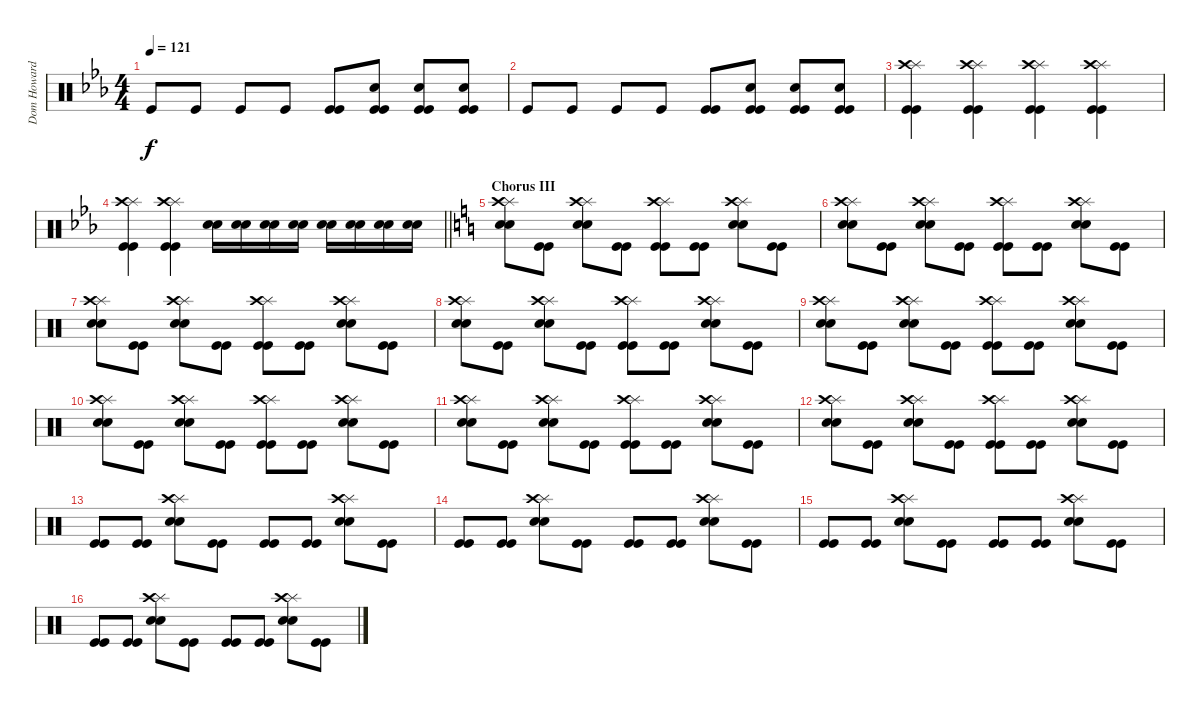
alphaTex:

\track ("Dom Howard - Drums" "Dom Howard") {instrument percussion}
\staff {score}
\articulation defaults
\ts (4 4)
\tempo 121
\clef neutral
\ks eb "Kick (hit)".8{dy f} "Kick (hit)".8 "Kick (hit)".8 "Kick (hit)".8
("Kick (hit)" "Kick (hit)").8 ("Electric Snare (hit)" "Kick (hit)" "Kick (hit)").8 ("Electric Snare (hit)" "Kick (hit)" "Kick (hit)").8 ("Electric Snare (hit)" "Kick (hit)" "Kick (hit)").8 |
"Kick (hit)".8 "Kick (hit)".8 "Kick (hit)".8 "Kick (hit)".8 ("Kick (hit)" "Kick (hit)").8 ("Electric Snare (hit)" "Kick (hit)" "Kick (hit)").8 ("Electric Snare (hit)" "Kick (hit)" "Kick (hit)").8 ("Electric Snare (hit)" "Kick (hit)" "Kick (hit)").8 |
("Splash (hit)" "Crash high (hit)" "Kick (hit)" "Kick (hit)").4 ("Splash (hit)" "Crash high (hit)" "Kick (hit)" "Kick (hit)").4 ("Splash (hit)" "Crash high (hit)" "Kick (hit)" "Kick (hit)").4 ("Splash (hit)" "Crash high (hit)" "Kick (hit)" "Kick (hit)").4 |
\barLineRight lightlight
("Splash (hit)" "Crash high (hit)" "Kick (hit)" "Kick (hit)").4 ("Splash (hit)" "Crash high (hit)" "Kick (hit)" "Kick (hit)").4 ("Electric Snare (hit)" "Electric Snare (hit)").16 ("Electric Snare (hit)" "Electric Snare (hit)").16 ("Electric Snare (hit)" "Electric Snare (hit)").16 ("Electric Snare (hit)" "Electric Snare (hit)").16 ("Electric Snare (hit)" "Electric Snare (hit)").16 ("Electric Snare (hit)" "Electric Snare (hit)").16 ("Electric Snare (hit)" "Electric Snare (hit)").16 ("Electric Snare (hit)" "Electric Snare (hit)").16 |
\section ("" "Chorus III")
\ks c
("Splash (hit)" "Crash high (hit)" "Electric Snare (hit)" "Electric Snare (hit)").8 ("Kick (hit)" "Kick (hit)").8 ("Splash (hit)" "Crash high (hit)" "Electric Snare (hit)" "Electric Snare (hit)").8 ("Kick (hit)" "Kick (hit)").8 ("Splash (hit)" "Crash high (hit)" "Kick (hit)" "Kick (hit)").8 ("Kick (hit)" "Kick (hit)").8 ("Splash (hit)" "Crash high (hit)" "Electric Snare (hit)" "Electric Snare (hit)").8 ("Kick (hit)" "Kick (hit)").8 |
("Splash (hit)" "Crash high (hit)" "Electric Snare (hit)" "Electric Snare (hit)").8 ("Kick (hit)" "Kick (hit)").8 ("Splash (hit)" "Crash high (hit)" "Electric Snare (hit)" "Electric Snare (hit)").8 ("Kick (hit)" "Kick (hit)").8 ("Splash (hit)" "Crash high (hit)" "Kick (hit)" "Kick (hit)").8 ("Kick (hit)" "Kick (hit)").8 ("Splash (hit)" "Crash high (hit)" "Electric Snare (hit)" "Electric Snare (hit)").8 ("Kick (hit)" "Kick (hit)").8 |
("Splash (hit)" "Crash high (hit)" "Electric Snare (hit)" "Electric Snare (hit)").8 ("Kick (hit)" "Kick (hit)").8 ("Splash (hit)" "Crash high (hit)" "Electric Snare (hit)" "Electric Snare (hit)").8 ("Kick (hit)" "Kick (hit)").8 ("Splash (hit)" "Crash high (hit)" "Kick (hit)" "Kick (hit)").8 ("Kick (hit)" "Kick (hit)").8 ("Splash (hit)" "Crash high (hit)" "Electric Snare (hit)" "Electric Snare (hit)").8 ("Kick (hit)" "Kick (hit)").8 |
("Splash (hit)" "Crash high (hit)" "Electric Snare (hit)" "Electric Snare (hit)").8 ("Kick (hit)" "Kick (hit)").8 ("Splash (hit)" "Crash high (hit)" "Electric Snare (hit)" "Electric Snare (hit)").8 ("Kick (hit)" "Kick (hit)").8 ("Splash (hit)" "Crash high (hit)" "Kick (hit)" "Kick (hit)").8 ("Kick (hit)" "Kick (hit)").8 ("Splash (hit)" "Crash high (hit)" "Electric Snare (hit)" "Electric Snare (hit)").8 ("Kick (hit)" "Kick (hit)").8 |
("Splash (hit)" "Crash high (hit)" "Electric Snare (hit)" "Electric Snare (hit)").8 ("Kick (hit)" "Kick (hit)").8 ("Splash (hit)" "Crash high (hit)" "Electric Snare (hit)" "Electric Snare (hit)").8 ("Kick (hit)" "Kick (hit)").8 ("Splash (hit)" "Crash high (hit)" "Kick (hit)" "Kick (hit)").8 ("Kick (hit)" "Kick (hit)").8 ("Splash (hit)" "Crash high (hit)" "Electric Snare (hit)" "Electric Snare (hit)").8 ("Kick (hit)" "Kick (hit)").8 |
("Splash (hit)" "Crash high (hit)" "Electric Snare (hit)" "Electric Snare (hit)").8 ("Kick (hit)" "Kick (hit)").8 ("Splash (hit)" "Crash high (hit)" "Electric Snare (hit)" "Electric Snare (hit)").8 ("Kick (hit)" "Kick (hit)").8 ("Splash (hit)" "Crash high (hit)" "Kick (hit)" "Kick (hit)").8 ("Kick (hit)" "Kick (hit)").8 ("Splash (hit)" "Crash high (hit)" "Electric Snare (hit)" "Electric Snare (hit)").8 ("Kick (hit)" "Kick (hit)").8 |
("Splash (hit)" "Crash high (hit)" "Electric Snare (hit)" "Electric Snare (hit)").8 ("Kick (hit)" "Kick (hit)").8 ("Splash (hit)" "Crash high (hit)" "Electric Snare (hit)" "Electric Snare (hit)").8 ("Kick (hit)" "Kick (hit)").8 ("Splash (hit)" "Crash high (hit)" "Kick (hit)" "Kick (hit)").8 ("Kick (hit)" "Kick (hit)").8 ("Splash (hit)" "Crash high (hit)" "Electric Snare (hit)" "Electric Snare (hit)").8 ("Kick (hit)" "Kick (hit)").8 |
("Splash (hit)" "Crash high (hit)" "Electric Snare (hit)" "Electric Snare (hit)").8 ("Kick (hit)" "Kick (hit)").8 ("Splash (hit)" "Crash high (hit)" "Electric Snare (hit)" "Electric Snare (hit)").8 ("Kick (hit)" "Kick (hit)").8 ("Splash (hit)" "Crash high (hit)" "Kick (hit)" "Kick (hit)").8 ("Kick (hit)" "Kick (hit)").8 ("Splash (hit)" "Crash high (hit)" "Electric Snare (hit)" "Electric Snare (hit)").8 ("Kick (hit)" "Kick (hit)").8 |
("Kick (hit)" "Kick (hit)").8 ("Kick (hit)" "Kick (hit)").8 ("Splash (hit)" "Crash high (hit)" "Electric Snare (hit)" "Electric Snare (hit)").8 ("Kick (hit)" "Kick (hit)").8 ("Kick (hit)" "Kick (hit)").8 ("Kick (hit)" "Kick (hit)").8 ("Splash (hit)" "Crash high (hit)" "Electric Snare (hit)" "Electric Snare (hit)").8 ("Kick (hit)" "Kick (hit)").8 |
("Kick (hit)" "Kick (hit)").8 ("Kick (hit)" "Kick (hit)").8 ("Splash (hit)" "Crash high (hit)" "Electric Snare (hit)" "Electric Snare (hit)").8 ("Kick (hit)" "Kick (hit)").8 ("Kick (hit)" "Kick (hit)").8 ("Kick (hit)" "Kick (hit)").8 ("Splash (hit)" "Crash high (hit)" "Electric Snare (hit)" "Electric Snare (hit)").8 ("Kick (hit)" "Kick (hit)").8 |
("Kick (hit)" "Kick (hit)").8 ("Kick (hit)" "Kick (hit)").8 ("Splash (hit)" "Crash high (hit)" "Electric Snare (hit)" "Electric Snare (hit)").8 ("Kick (hit)" "Kick (hit)").8 ("Kick (hit)" "Kick (hit)").8 ("Kick (hit)" "Kick (hit)").8 ("Splash (hit)" "Crash high (hit)" "Electric Snare (hit)" "Electric Snare (hit)").8 ("Kick (hit)" "Kick (hit)").8 |
("Kick (hit)" "Kick (hit)").8 ("Kick (hit)" "Kick (hit)").8 ("Splash (hit)" "Crash high (hit)" "Electric Snare (hit)" "Electric Snare (hit)").8 ("Kick (hit)" "Kick (hit)").8 ("Kick (hit)" "Kick (hit)").8 ("Kick (hit)" "Kick (hit)").8 ("Splash (hit)" "Crash high (hit)" "Electric Snare (hit)" "Electric Snare (hit)").8 ("Kick (hit)" "Kick (hit)").8
